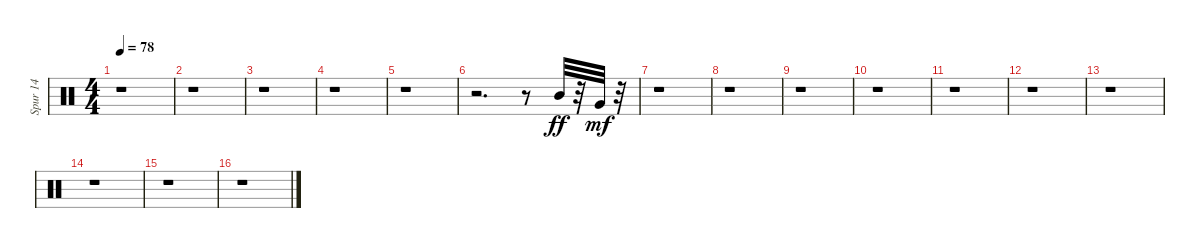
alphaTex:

\track ("Spur 14" "Spur 14") {instrument percussion}
\staff {score}
\articulation defaults
\ts (4 4)
\tempo 78
\clef neutral
\ks c
r.1{dy f} |
r.1 |
r.1 |
r.1 |
r.1 |
r.2{d} r.8 "Mid Tom (hit)".32{dy ff} r.32 "Very Low Tom (hit)".32{dy mf} r.32 |
r.1 |
r.1 |
r.1 |
r.1 |
r.1 |
r.1 |
r.1 |
r.1 |
r.1 |
r.1
